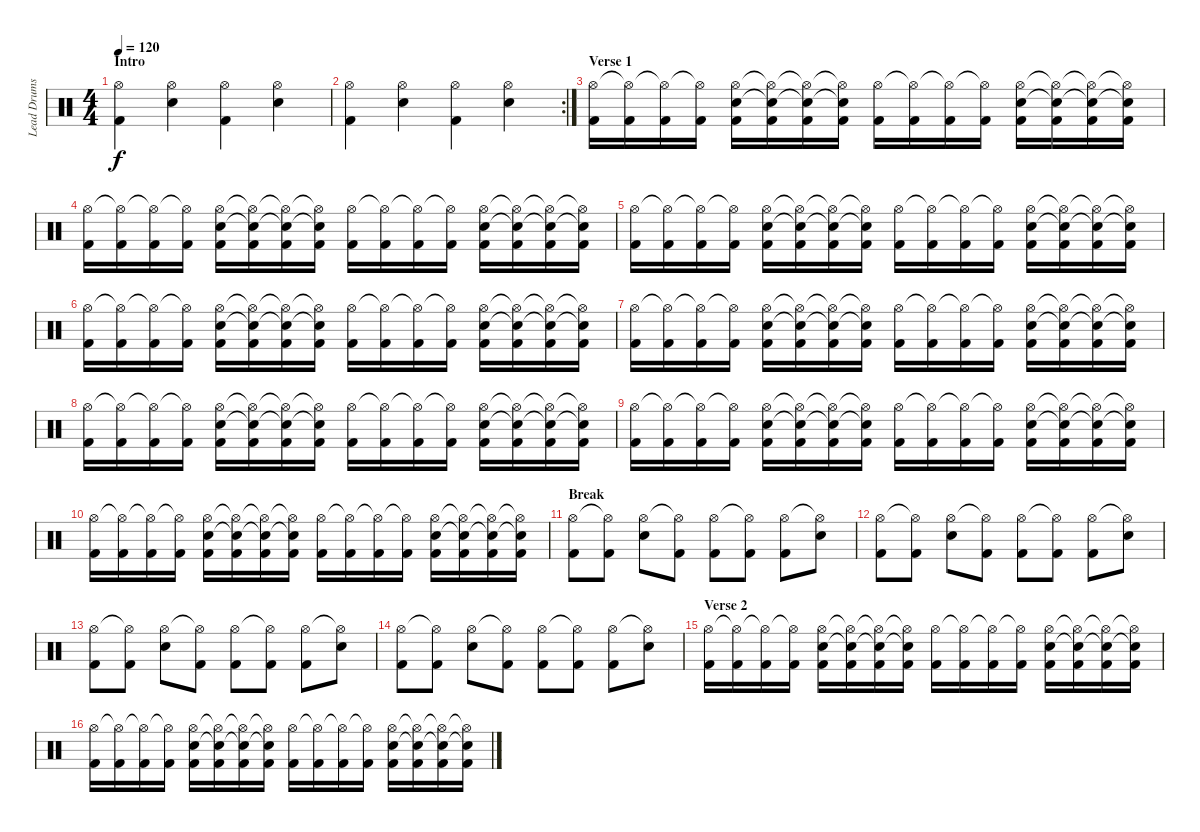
\track ("Lead Drums" "Lead Drums") {instrument percussion}
\staff {score}
\articulation defaults
\ts (4 4)
\section ("" "Intro")
\tempo 120
\clef neutral
\ks c
("Hi-Hat (open)" "Kick (hit) 2").4{dy f} ("Hi-Hat (open)" "Snare (hit) 2").4 ("Hi-Hat (open)" "Kick (hit) 2").4 ("Hi-Hat (open)" "Snare (hit) 2").4 |
\rc 2
("Hi-Hat (open)" "Kick (hit) 2").4 ("Hi-Hat (open)" "Snare (hit) 2").4 ("Hi-Hat (open)" "Kick (hit) 2").4 ("Hi-Hat (open)" "Snare (hit) 2").4 |
\section ("" "Verse 1")
("Hi-Hat (open)" "Kick (hit) 2").16 ("Hi-Hat (open)"{t} "Kick (hit) 2").16 ("Hi-Hat (open)"{t} "Kick (hit) 2").16 ("Hi-Hat (open)"{t} "Kick (hit) 2").16 ("Hi-Hat (open)" "Snare (hit) 2" "Kick (hit) 2").16 ("Hi-Hat (open)"{t} "Snare (hit)"{t} "Kick (hit) 2").16 ("Hi-Hat (open)"{t} "Snare (hit)"{t} "Kick (hit) 2").16 ("Hi-Hat (open)"{t} "Snare (hit)"{t} "Kick (hit) 2").16 ("Hi-Hat (open)" "Kick (hit) 2").16 ("Hi-Hat (open)"{t} "Kick (hit) 2").16 ("Hi-Hat (open)"{t} "Kick (hit) 2").16 ("Hi-Hat (open)"{t} "Kick (hit) 2").16 ("Hi-Hat (open)" "Snare (hit) 2" "Kick (hit) 2").16 ("Hi-Hat (open)"{t} "Snare (hit)"{t} "Kick (hit) 2").16 ("Hi-Hat (open)"{t} "Snare (hit)"{t} "Kick (hit) 2").16 ("Hi-Hat (open)"{t} "Snare (hit)"{t} "Kick (hit) 2").16 |
("Hi-Hat (open)" "Kick (hit) 2").16 ("Hi-Hat (open)"{t} "Kick (hit) 2").16 ("Hi-Hat (open)"{t} "Kick (hit) 2").16 ("Hi-Hat (open)"{t} "Kick (hit) 2").16 ("Hi-Hat (open)" "Snare (hit) 2" "Kick (hit) 2").16 ("Hi-Hat (open)"{t} "Snare (hit)"{t} "Kick (hit) 2").16 ("Hi-Hat (open)"{t} "Snare (hit)"{t} "Kick (hit) 2").16 ("Hi-Hat (open)"{t} "Snare (hit)"{t} "Kick (hit) 2").16 ("Hi-Hat (open)" "Kick (hit) 2").16 ("Hi-Hat (open)"{t} "Kick (hit) 2").16 ("Hi-Hat (open)"{t} "Kick (hit) 2").16 ("Hi-Hat (open)"{t} "Kick (hit) 2").16 ("Hi-Hat (open)" "Snare (hit) 2" "Kick (hit) 2").16 ("Hi-Hat (open)"{t} "Snare (hit)"{t} "Kick (hit) 2").16 ("Hi-Hat (open)"{t} "Snare (hit)"{t} "Kick (hit) 2").16 ("Hi-Hat (open)"{t} "Snare (hit)"{t} "Kick (hit) 2").16 |
("Hi-Hat (open)" "Kick (hit) 2").16 ("Hi-Hat (open)"{t} "Kick (hit) 2").16 ("Hi-Hat (open)"{t} "Kick (hit) 2").16 ("Hi-Hat (open)"{t} "Kick (hit) 2").16 ("Hi-Hat (open)" "Snare (hit) 2" "Kick (hit) 2").16 ("Hi-Hat (open)"{t} "Snare (hit)"{t} "Kick (hit) 2").16 ("Hi-Hat (open)"{t} "Snare (hit)"{t} "Kick (hit) 2").16 ("Hi-Hat (open)"{t} "Snare (hit)"{t} "Kick (hit) 2").16 ("Hi-Hat (open)" "Kick (hit) 2").16 ("Hi-Hat (open)"{t} "Kick (hit) 2").16 ("Hi-Hat (open)"{t} "Kick (hit) 2").16 ("Hi-Hat (open)"{t} "Kick (hit) 2").16 ("Hi-Hat (open)" "Snare (hit) 2" "Kick (hit) 2").16 ("Hi-Hat (open)"{t} "Snare (hit)"{t} "Kick (hit) 2").16 ("Hi-Hat (open)"{t} "Snare (hit)"{t} "Kick (hit) 2").16 ("Hi-Hat (open)"{t} "Snare (hit)"{t} "Kick (hit) 2").16 |
("Hi-Hat (open)" "Kick (hit) 2").16 ("Hi-Hat (open)"{t} "Kick (hit) 2").16 ("Hi-Hat (open)"{t} "Kick (hit) 2").16 ("Hi-Hat (open)"{t} "Kick (hit) 2").16 ("Hi-Hat (open)" "Snare (hit) 2" "Kick (hit) 2").16 ("Hi-Hat (open)"{t} "Snare (hit)"{t} "Kick (hit) 2").16 ("Hi-Hat (open)"{t} "Snare (hit)"{t} "Kick (hit) 2").16 ("Hi-Hat (open)"{t} "Snare (hit)"{t} "Kick (hit) 2").16 ("Hi-Hat (open)" "Kick (hit) 2").16 ("Hi-Hat (open)"{t} "Kick (hit) 2").16 ("Hi-Hat (open)"{t} "Kick (hit) 2").16 ("Hi-Hat (open)"{t} "Kick (hit) 2").16 ("Hi-Hat (open)" "Snare (hit) 2" "Kick (hit) 2").16 ("Hi-Hat (open)"{t} "Snare (hit)"{t} "Kick (hit) 2").16 ("Hi-Hat (open)"{t} "Snare (hit)"{t} "Kick (hit) 2").16 ("Hi-Hat (open)"{t} "Snare (hit)"{t} "Kick (hit) 2").16 |
("Hi-Hat (open)" "Kick (hit) 2").16 ("Hi-Hat (open)"{t} "Kick (hit) 2").16 ("Hi-Hat (open)"{t} "Kick (hit) 2").16 ("Hi-Hat (open)"{t} "Kick (hit) 2").16 ("Hi-Hat (open)" "Snare (hit) 2" "Kick (hit) 2").16 ("Hi-Hat (open)"{t} "Snare (hit)"{t} "Kick (hit) 2").16 ("Hi-Hat (open)"{t} "Snare (hit)"{t} "Kick (hit) 2").16 ("Hi-Hat (open)"{t} "Snare (hit)"{t} "Kick (hit) 2").16 ("Hi-Hat (open)" "Kick (hit) 2").16 ("Hi-Hat (open)"{t} "Kick (hit) 2").16 ("Hi-Hat (open)"{t} "Kick (hit) 2").16 ("Hi-Hat (open)"{t} "Kick (hit) 2").16 ("Hi-Hat (open)" "Snare (hit) 2" "Kick (hit) 2").16 ("Hi-Hat (open)"{t} "Snare (hit)"{t} "Kick (hit) 2").16 ("Hi-Hat (open)"{t} "Snare (hit)"{t} "Kick (hit) 2").16 ("Hi-Hat (open)"{t} "Snare (hit)"{t} "Kick (hit) 2").16 |
("Hi-Hat (open)" "Kick (hit) 2").16 ("Hi-Hat (open)"{t} "Kick (hit) 2").16 ("Hi-Hat (open)"{t} "Kick (hit) 2").16 ("Hi-Hat (open)"{t} "Kick (hit) 2").16 ("Hi-Hat (open)" "Snare (hit) 2" "Kick (hit) 2").16 ("Hi-Hat (open)"{t} "Snare (hit)"{t} "Kick (hit) 2").16 ("Hi-Hat (open)"{t} "Snare (hit)"{t} "Kick (hit) 2").16 ("Hi-Hat (open)"{t} "Snare (hit)"{t} "Kick (hit) 2").16 ("Hi-Hat (open)" "Kick (hit) 2").16 ("Hi-Hat (open)"{t} "Kick (hit) 2").16 ("Hi-Hat (open)"{t} "Kick (hit) 2").16 ("Hi-Hat (open)"{t} "Kick (hit) 2").16 ("Hi-Hat (open)" "Snare (hit) 2" "Kick (hit) 2").16 ("Hi-Hat (open)"{t} "Snare (hit)"{t} "Kick (hit) 2").16 ("Hi-Hat (open)"{t} "Snare (hit)"{t} "Kick (hit) 2").16 ("Hi-Hat (open)"{t} "Snare (hit)"{t} "Kick (hit) 2").16 |
("Hi-Hat (open)" "Kick (hit) 2").16 ("Hi-Hat (open)"{t} "Kick (hit) 2").16 ("Hi-Hat (open)"{t} "Kick (hit) 2").16 ("Hi-Hat (open)"{t} "Kick (hit) 2").16 ("Hi-Hat (open)" "Snare (hit) 2" "Kick (hit) 2").16 ("Hi-Hat (open)"{t} "Snare (hit)"{t} "Kick (hit) 2").16 ("Hi-Hat (open)"{t} "Snare (hit)"{t} "Kick (hit) 2").16 ("Hi-Hat (open)"{t} "Snare (hit)"{t} "Kick (hit) 2").16 ("Hi-Hat (open)" "Kick (hit) 2").16 ("Hi-Hat (open)"{t} "Kick (hit) 2").16 ("Hi-Hat (open)"{t} "Kick (hit) 2").16 ("Hi-Hat (open)"{t} "Kick (hit) 2").16 ("Hi-Hat (open)" "Snare (hit) 2" "Kick (hit) 2").16 ("Hi-Hat (open)"{t} "Snare (hit)"{t} "Kick (hit) 2").16 ("Hi-Hat (open)"{t} "Snare (hit)"{t} "Kick (hit) 2").16 ("Hi-Hat (open)"{t} "Snare (hit)"{t} "Kick (hit) 2").16 |
("Hi-Hat (open)" "Kick (hit) 2").16 ("Hi-Hat (open)"{t} "Kick (hit) 2").16 ("Hi-Hat (open)"{t} "Kick (hit) 2").16 ("Hi-Hat (open)"{t} "Kick (hit) 2").16 ("Hi-Hat (open)" "Snare (hit) 2" "Kick (hit) 2").16 ("Hi-Hat (open)"{t} "Snare (hit)"{t} "Kick (hit) 2").16 ("Hi-Hat (open)"{t} "Snare (hit)"{t} "Kick (hit) 2").16 ("Hi-Hat (open)"{t} "Snare (hit)"{t} "Kick (hit) 2").16 ("Hi-Hat (open)" "Kick (hit) 2").16 ("Hi-Hat (open)"{t} "Kick (hit) 2").16 ("Hi-Hat (open)"{t} "Kick (hit) 2").16 ("Hi-Hat (open)"{t} "Kick (hit) 2").16 ("Hi-Hat (open)" "Snare (hit) 2" "Kick (hit) 2").16 ("Hi-Hat (open)"{t} "Snare (hit)"{t} "Kick (hit) 2").16 ("Hi-Hat (open)"{t} "Snare (hit)"{t} "Kick (hit) 2").16 ("Hi-Hat (open)"{t} "Snare (hit)"{t} "Kick (hit) 2").16 |
\section ("" "Break")
("Hi-Hat (open)" "Kick (hit) 2").8 ("Hi-Hat (open)"{t} "Kick (hit) 2").8 ("Hi-Hat (open)" "Snare (hit) 2").8 ("Hi-Hat (open)"{t} "Kick (hit) 2").8 ("Hi-Hat (open)" "Kick (hit) 2").8 ("Hi-Hat (open)"{t} "Kick (hit) 2").8 ("Hi-Hat (open)" "Kick (hit) 2").8 ("Hi-Hat (open)"{t} "Snare (hit) 2").8 |
("Hi-Hat (open)" "Kick (hit) 2").8 ("Hi-Hat (open)"{t} "Kick (hit) 2").8 ("Hi-Hat (open)" "Snare (hit) 2").8 ("Hi-Hat (open)"{t} "Kick (hit) 2").8 ("Hi-Hat (open)" "Kick (hit) 2").8 ("Hi-Hat (open)"{t} "Kick (hit) 2").8 ("Hi-Hat (open)" "Kick (hit) 2").8 ("Hi-Hat (open)"{t} "Snare (hit) 2").8 |
("Hi-Hat (open)" "Kick (hit) 2").8 ("Hi-Hat (open)"{t} "Kick (hit) 2").8 ("Hi-Hat (open)" "Snare (hit) 2").8 ("Hi-Hat (open)"{t} "Kick (hit) 2").8 ("Hi-Hat (open)" "Kick (hit) 2").8 ("Hi-Hat (open)"{t} "Kick (hit) 2").8 ("Hi-Hat (open)" "Kick (hit) 2").8 ("Hi-Hat (open)"{t} "Snare (hit) 2").8 |
("Hi-Hat (open)" "Kick (hit) 2").8 ("Hi-Hat (open)"{t} "Kick (hit) 2").8 ("Hi-Hat (open)" "Snare (hit) 2").8 ("Hi-Hat (open)"{t} "Kick (hit) 2").8 ("Hi-Hat (open)" "Kick (hit) 2").8 ("Hi-Hat (open)"{t} "Kick (hit) 2").8 ("Hi-Hat (open)" "Kick (hit) 2").8 ("Hi-Hat (open)"{t} "Snare (hit) 2").8 |
\section ("" "Verse 2")
("Hi-Hat (open)" "Kick (hit) 2").16 ("Hi-Hat (open)"{t} "Kick (hit) 2").16 ("Hi-Hat (open)"{t} "Kick (hit) 2").16 ("Hi-Hat (open)"{t} "Kick (hit) 2").16 ("Hi-Hat (open)" "Snare (hit) 2" "Kick (hit) 2").16 ("Hi-Hat (open)"{t} "Snare (hit)"{t} "Kick (hit) 2").16 ("Hi-Hat (open)"{t} "Snare (hit)"{t} "Kick (hit) 2").16 ("Hi-Hat (open)"{t} "Snare (hit)"{t} "Kick (hit) 2").16 ("Hi-Hat (open)" "Kick (hit) 2").16 ("Hi-Hat (open)"{t} "Kick (hit) 2").16 ("Hi-Hat (open)"{t} "Kick (hit) 2").16 ("Hi-Hat (open)"{t} "Kick (hit) 2").16 ("Hi-Hat (open)" "Snare (hit) 2" "Kick (hit) 2").16 ("Hi-Hat (open)"{t} "Snare (hit)"{t} "Kick (hit) 2").16 ("Hi-Hat (open)"{t} "Snare (hit)"{t} "Kick (hit) 2").16 ("Hi-Hat (open)"{t} "Snare (hit)"{t} "Kick (hit) 2").16 |
("Hi-Hat (open)" "Kick (hit) 2").16 ("Hi-Hat (open)"{t} "Kick (hit) 2").16 ("Hi-Hat (open)"{t} "Kick (hit) 2").16 ("Hi-Hat (open)"{t} "Kick (hit) 2").16 ("Hi-Hat (open)" "Snare (hit) 2" "Kick (hit) 2").16 ("Hi-Hat (open)"{t} "Snare (hit)"{t} "Kick (hit) 2").16 ("Hi-Hat (open)"{t} "Snare (hit)"{t} "Kick (hit) 2").16 ("Hi-Hat (open)"{t} "Snare (hit)"{t} "Kick (hit) 2").16 ("Hi-Hat (open)" "Kick (hit) 2").16 ("Hi-Hat (open)"{t} "Kick (hit) 2").16 ("Hi-Hat (open)"{t} "Kick (hit) 2").16 ("Hi-Hat (open)"{t} "Kick (hit) 2").16 ("Hi-Hat (open)" "Snare (hit) 2" "Kick (hit) 2").16 ("Hi-Hat (open)"{t} "Snare (hit)"{t} "Kick (hit) 2").16 ("Hi-Hat (open)"{t} "Snare (hit)"{t} "Kick (hit) 2").16 ("Hi-Hat (open)"{t} "Snare (hit)"{t} "Kick (hit) 2").16
